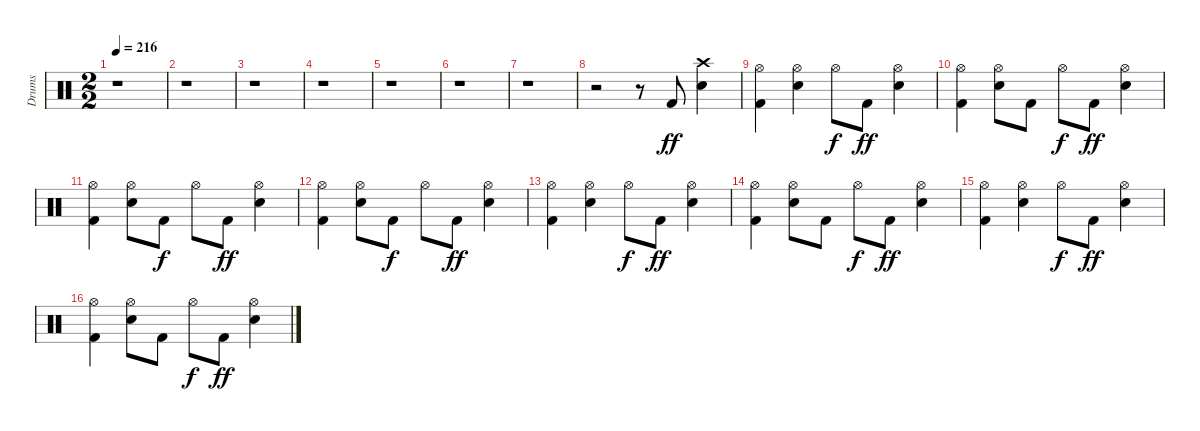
\track ("Drums" "Drums") {instrument percussion}
\staff {score}
\articulation defaults
\ts (2 2)
\tempo 216
\clef neutral
\ks c
r.1{dy ff} |
r.1 |
r.1 |
r.1 |
r.1 |
r.1 |
r.1 |
r.2 r.8 "Kick (hit) 2".8 ("Electric Snare (hit)" "Crash high (hit)").4 |
("Kick (hit) 2" "Hi-Hat (open)").4 ("Electric Snare (hit)" "Hi-Hat (open)").4 "Hi-Hat (open)".8{dy f} "Kick (hit) 2".8{dy ff} ("Electric Snare (hit)" "Hi-Hat (open)").4 |
("Kick (hit) 2" "Hi-Hat (open)").4 ("Electric Snare (hit)" "Hi-Hat (open)").8 "Kick (hit) 2".8 "Hi-Hat (open)".8{dy f} "Kick (hit) 2".8{dy ff} ("Electric Snare (hit)" "Hi-Hat (open)").4 |
("Kick (hit) 2" "Hi-Hat (open)").4 ("Electric Snare (hit)" "Hi-Hat (open)").8 "Kick (hit) 2".8{dy f} "Hi-Hat (open)".8 "Kick (hit) 2".8{dy ff} ("Electric Snare (hit)" "Hi-Hat (open)").4 |
("Kick (hit) 2" "Hi-Hat (open)").4 ("Electric Snare (hit)" "Hi-Hat (open)").8 "Kick (hit) 2".8{dy f} "Hi-Hat (open)".8 "Kick (hit) 2".8{dy ff} ("Electric Snare (hit)" "Hi-Hat (open)").4 |
("Kick (hit) 2" "Hi-Hat (open)").4 ("Electric Snare (hit)" "Hi-Hat (open)").4 "Hi-Hat (open)".8{dy f} "Kick (hit) 2".8{dy ff} ("Electric Snare (hit)" "Hi-Hat (open)").4 |
("Kick (hit) 2" "Hi-Hat (open)").4 ("Electric Snare (hit)" "Hi-Hat (open)").8 "Kick (hit) 2".8 "Hi-Hat (open)".8{dy f} "Kick (hit) 2".8{dy ff} ("Electric Snare (hit)" "Hi-Hat (open)").4 |
("Kick (hit) 2" "Hi-Hat (open)").4 ("Electric Snare (hit)" "Hi-Hat (open)").4 "Hi-Hat (open)".8{dy f} "Kick (hit) 2".8{dy ff} ("Electric Snare (hit)" "Hi-Hat (open)").4 |
("Kick (hit) 2" "Hi-Hat (open)").4 ("Electric Snare (hit)" "Hi-Hat (open)").8 "Kick (hit) 2".8 "Hi-Hat (open)".8{dy f} "Kick (hit) 2".8{dy ff} ("Electric Snare (hit)" "Hi-Hat (open)").4
